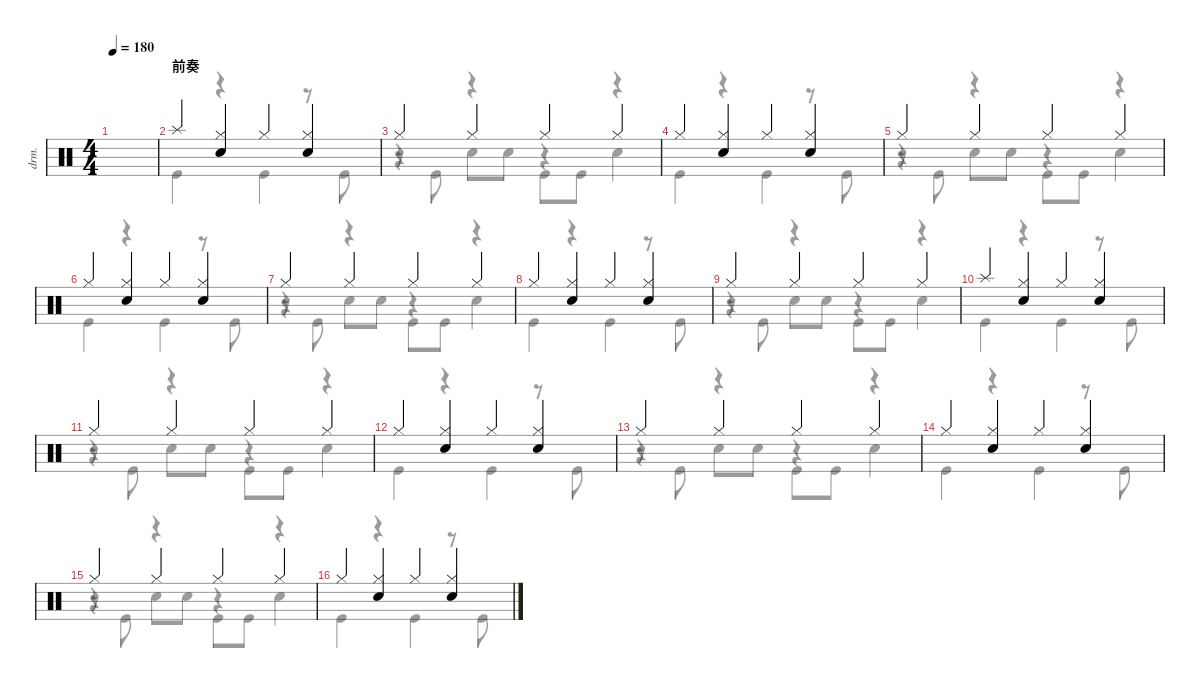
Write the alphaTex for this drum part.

\defaultSystemsLayout 4
\hideDynamics
\bracketExtendMode nobrackets
\otherSystemsTrackNameOrientation horizontal
\track ("Drumkit" "drm.") {instrument percussion}
\staff {score}
\articulation defaults
\voice
\ts (4 4)
\tempo 180
\clef neutral
\ks c
|
\section ("" "前奏")
"Splash (hit)".4 ("Hi-Hat (closed)" "Snare (hit) 2").4 "Hi-Hat (closed)".4 ("Hi-Hat (closed)" "Snare (hit) 2").4 |
"Hi-Hat (closed)".4 "Hi-Hat (closed)".4 "Hi-Hat (closed)".4 "Hi-Hat (closed)".4 |
"Hi-Hat (closed)".4 ("Hi-Hat (closed)" "Snare (hit) 2").4 "Hi-Hat (closed)".4 ("Hi-Hat (closed)" "Snare (hit) 2").4 |
"Hi-Hat (closed)".4 "Hi-Hat (closed)".4 "Hi-Hat (closed)".4 "Hi-Hat (closed)".4 |
"Hi-Hat (closed)".4 ("Hi-Hat (closed)" "Snare (hit) 2").4 "Hi-Hat (closed)".4 ("Hi-Hat (closed)" "Snare (hit) 2").4 |
"Hi-Hat (closed)".4 "Hi-Hat (closed)".4 "Hi-Hat (closed)".4 "Hi-Hat (closed)".4 |
"Hi-Hat (closed)".4 ("Hi-Hat (closed)" "Snare (hit) 2").4 "Hi-Hat (closed)".4 ("Hi-Hat (closed)" "Snare (hit) 2").4 |
"Hi-Hat (closed)".4 "Hi-Hat (closed)".4 "Hi-Hat (closed)".4 "Hi-Hat (closed)".4 |
"Splash (hit)".4 ("Hi-Hat (closed)" "Snare (hit) 2").4 "Hi-Hat (closed)".4 ("Hi-Hat (closed)" "Snare (hit) 2").4 |
"Hi-Hat (closed)".4 "Hi-Hat (closed)".4 "Hi-Hat (closed)".4 "Hi-Hat (closed)".4 |
"Hi-Hat (closed)".4 ("Hi-Hat (closed)" "Snare (hit) 2").4 "Hi-Hat (closed)".4 ("Hi-Hat (closed)" "Snare (hit) 2").4 |
"Hi-Hat (closed)".4 "Hi-Hat (closed)".4 "Hi-Hat (closed)".4 "Hi-Hat (closed)".4 |
"Hi-Hat (closed)".4 ("Hi-Hat (closed)" "Snare (hit) 2").4 "Hi-Hat (closed)".4 ("Hi-Hat (closed)" "Snare (hit) 2").4 |
"Hi-Hat (closed)".4 "Hi-Hat (closed)".4 "Hi-Hat (closed)".4 "Hi-Hat (closed)".4 |
"Hi-Hat (closed)".4 ("Hi-Hat (closed)" "Snare (hit) 2").4 "Hi-Hat (closed)".4 ("Hi-Hat (closed)" "Snare (hit) 2").4
\voice
\clef neutral
\ottava regular
\simile none
\ks c
|
"Kick (hit)".4 r.4 "Kick (hit)".4 r.8 "Kick (hit)".8 |
r.8 "Kick (hit)".8 r.4 "Kick (hit)".8 "Kick (hit)".8 r.4 |
"Kick (hit)".4 r.4 "Kick (hit)".4 r.8 "Kick (hit)".8 |
r.8 "Kick (hit)".8 r.4 "Kick (hit)".8 "Kick (hit)".8 r.4 |
"Kick (hit)".4 r.4 "Kick (hit)".4 r.8 "Kick (hit)".8 |
r.8 "Kick (hit)".8 r.4 "Kick (hit)".8 "Kick (hit)".8 r.4 |
"Kick (hit)".4 r.4 "Kick (hit)".4 r.8 "Kick (hit)".8 |
r.8 "Kick (hit)".8 r.4 "Kick (hit)".8 "Kick (hit)".8 r.4 |
"Kick (hit)".4 r.4 "Kick (hit)".4 r.8 "Kick (hit)".8 |
r.8 "Kick (hit)".8 r.4 "Kick (hit)".8 "Kick (hit)".8 r.4 |
"Kick (hit)".4 r.4 "Kick (hit)".4 r.8 "Kick (hit)".8 |
r.8 "Kick (hit)".8 r.4 "Kick (hit)".8 "Kick (hit)".8 r.4 |
"Kick (hit)".4 r.4 "Kick (hit)".4 r.8 "Kick (hit)".8 |
r.8 "Kick (hit)".8 r.4 "Kick (hit)".8 "Kick (hit)".8 r.4 |
"Kick (hit)".4 r.4 "Kick (hit)".4 r.8 "Kick (hit)".8
\voice
\clef neutral
\ottava regular
\simile none
\ks c
|
|
r.4 "Snare (hit) 2".8 "Snare (hit) 2".8 r.4 "Snare (hit) 2".4 |
|
r.4 "Snare (hit) 2".8 "Snare (hit) 2".8 r.4 "Snare (hit) 2".4 |
|
r.4 "Snare (hit) 2".8 "Snare (hit) 2".8 r.4 "Snare (hit) 2".4 |
|
r.4 "Snare (hit) 2".8 "Snare (hit) 2".8 r.4 "Snare (hit) 2".4 |
|
r.4 "Snare (hit) 2".8 "Snare (hit) 2".8 r.4 "Snare (hit) 2".4 |
|
r.4 "Snare (hit) 2".8 "Snare (hit) 2".8 r.4 "Snare (hit) 2".4 |
|
r.4 "Snare (hit) 2".8 "Snare (hit) 2".8 r.4 "Snare (hit) 2".4 |
